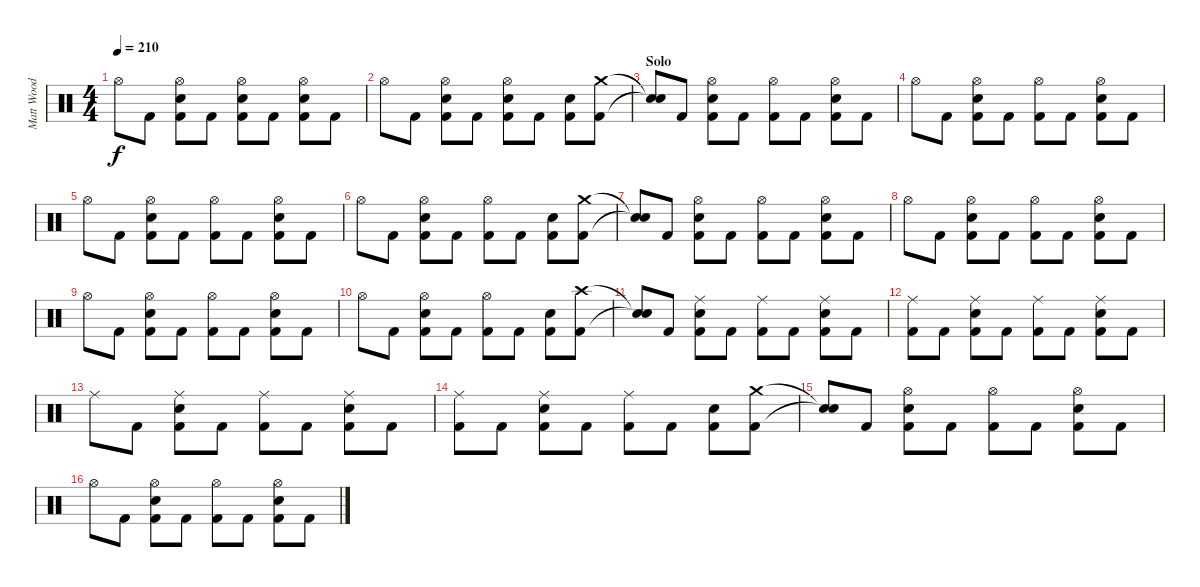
\track ("Matt Wood" "Matt Wood") {instrument percussion}
\staff {score}
\articulation defaults
\ts (4 4)
\tempo 210
\clef neutral
\ks c "Hi-Hat (open)".8{dy f} "Kick (hit) 2".8
("Hi-Hat (open)" "Snare (hit) 2" "Kick (hit) 2").8 "Kick (hit) 2".8 ("Hi-Hat (open)" "Snare (hit) 2" "Kick (hit) 2").8 "Kick (hit) 2".8 ("Hi-Hat (open)" "Snare (hit) 2" "Kick (hit) 2").8 "Kick (hit) 2".8 |
"Hi-Hat (open)".8 "Kick (hit) 2".8 ("Hi-Hat (open)" "Snare (hit) 2" "Kick (hit) 2").8 "Kick (hit) 2".8 ("Hi-Hat (open)" "Snare (hit) 2" "Kick (hit) 2").8 "Kick (hit) 2".8 ("Snare (hit) 2" "Kick (hit) 2").8 ("Crash medium (hit)" "Kick (hit) 2").8 |
\section ("" "Solo")
("Snare (hit)"{t} "Snare (hit)"{t}).8 "Kick (hit) 2".8 ("Hi-Hat (open)" "Snare (hit) 2" "Kick (hit) 2").8 "Kick (hit) 2".8 ("Hi-Hat (open)" "Kick (hit) 2").8 "Kick (hit) 2".8 ("Hi-Hat (open)" "Snare (hit) 2" "Kick (hit) 2").8 "Kick (hit) 2".8 |
"Hi-Hat (open)".8 "Kick (hit) 2".8 ("Hi-Hat (open)" "Snare (hit) 2" "Kick (hit) 2").8 "Kick (hit) 2".8 ("Hi-Hat (open)" "Kick (hit) 2").8 "Kick (hit) 2".8 ("Hi-Hat (open)" "Snare (hit) 2" "Kick (hit) 2").8 "Kick (hit) 2".8 |
"Hi-Hat (open)".8 "Kick (hit) 2".8 ("Hi-Hat (open)" "Snare (hit) 2" "Kick (hit) 2").8 "Kick (hit) 2".8 ("Hi-Hat (open)" "Kick (hit) 2").8 "Kick (hit) 2".8 ("Hi-Hat (open)" "Snare (hit) 2" "Kick (hit) 2").8 "Kick (hit) 2".8 |
"Hi-Hat (open)".8 "Kick (hit) 2".8 ("Hi-Hat (open)" "Snare (hit) 2" "Kick (hit) 2").8 "Kick (hit) 2".8 ("Hi-Hat (open)" "Kick (hit) 2").8 "Kick (hit) 2".8 ("Snare (hit) 2" "Kick (hit) 2").8 ("Crash medium (hit)" "Kick (hit) 2").8 |
("Snare (hit)"{t} "Snare (hit)"{t}).8 "Kick (hit) 2".8 ("Hi-Hat (open)" "Snare (hit) 2" "Kick (hit) 2").8 "Kick (hit) 2".8 ("Hi-Hat (open)" "Kick (hit) 2").8 "Kick (hit) 2".8 ("Hi-Hat (open)" "Snare (hit) 2" "Kick (hit) 2").8 "Kick (hit) 2".8 |
"Hi-Hat (open)".8 "Kick (hit) 2".8 ("Hi-Hat (open)" "Snare (hit) 2" "Kick (hit) 2").8 "Kick (hit) 2".8 ("Hi-Hat (open)" "Kick (hit) 2").8 "Kick (hit) 2".8 ("Hi-Hat (open)" "Snare (hit) 2" "Kick (hit) 2").8 "Kick (hit) 2".8 |
"Hi-Hat (open)".8 "Kick (hit) 2".8 ("Hi-Hat (open)" "Snare (hit) 2" "Kick (hit) 2").8 "Kick (hit) 2".8 ("Hi-Hat (open)" "Kick (hit) 2").8 "Kick (hit) 2".8 ("Hi-Hat (open)" "Snare (hit) 2" "Kick (hit) 2").8 "Kick (hit) 2".8 |
"Hi-Hat (open)".8 "Kick (hit) 2".8 ("Hi-Hat (open)" "Snare (hit) 2" "Kick (hit) 2").8 "Kick (hit) 2".8 ("Hi-Hat (open)" "Kick (hit) 2").8 "Kick (hit) 2".8 ("Snare (hit) 2" "Kick (hit) 2").8 ("Crash high (hit)" "Kick (hit) 2").8 |
("Snare (hit)"{t} "Snare (hit)"{t}).8 "Kick (hit) 2".8 ("Ride (middle)" "Snare (hit) 2" "Kick (hit) 2").8 "Kick (hit) 2".8 ("Ride (middle)" "Kick (hit) 2").8 "Kick (hit) 2".8 ("Ride (middle)" "Snare (hit) 2" "Kick (hit) 2").8 "Kick (hit) 2".8 |
("Ride (middle)" "Kick (hit) 2").8 "Kick (hit) 2".8 ("Ride (middle)" "Snare (hit) 2" "Kick (hit) 2").8 "Kick (hit) 2".8 ("Ride (middle)" "Kick (hit) 2").8 "Kick (hit) 2".8 ("Ride (middle)" "Snare (hit) 2" "Kick (hit) 2").8 "Kick (hit) 2".8 |
"Ride (middle)".8 "Kick (hit) 2".8 ("Ride (middle)" "Snare (hit) 2" "Kick (hit) 2").8 "Kick (hit) 2".8 ("Ride (middle)" "Kick (hit) 2").8 "Kick (hit) 2".8 ("Ride (middle)" "Snare (hit) 2" "Kick (hit) 2").8 "Kick (hit) 2".8 |
("Ride (middle)" "Kick (hit) 2").8 "Kick (hit) 2".8 ("Ride (middle)" "Snare (hit) 2" "Kick (hit) 2").8 "Kick (hit) 2".8 ("Ride (middle)" "Kick (hit) 2").8 "Kick (hit) 2".8 ("Snare (hit) 2" "Kick (hit) 2").8 ("Crash medium (hit)" "Kick (hit) 2").8 |
("Snare (hit)"{t} "Snare (hit)"{t}).8 "Kick (hit) 2".8 ("Hi-Hat (open)" "Snare (hit) 2" "Kick (hit) 2").8 "Kick (hit) 2".8 ("Hi-Hat (open)" "Kick (hit) 2").8 "Kick (hit) 2".8 ("Hi-Hat (open)" "Snare (hit) 2" "Kick (hit) 2").8 "Kick (hit) 2".8 |
"Hi-Hat (open)".8 "Kick (hit) 2".8 ("Hi-Hat (open)" "Snare (hit) 2" "Kick (hit) 2").8 "Kick (hit) 2".8 ("Hi-Hat (open)" "Kick (hit) 2").8 "Kick (hit) 2".8 ("Hi-Hat (open)" "Snare (hit) 2" "Kick (hit) 2").8 "Kick (hit) 2".8
